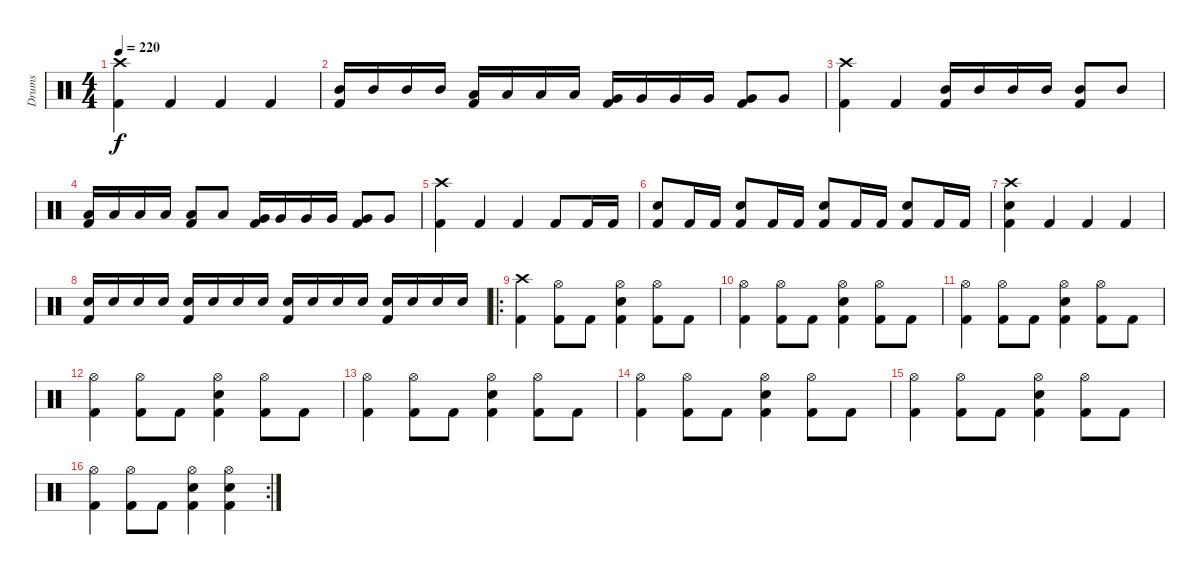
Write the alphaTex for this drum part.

\track ("Drums" "Drums") {instrument percussion}
\staff {score}
\articulation defaults
\ts (4 4)
\tempo 220
\tempo 200
\tempo 220
\clef neutral
\ks c
("Crash high (hit)" "Kick (hit) 2").4{dy f} "Kick (hit) 2".4 "Kick (hit) 2".4 "Kick (hit) 2".4 |
("Mid Tom (hit)" "Kick (hit) 2").16 "Mid Tom (hit)".16 "Mid Tom (hit)".16 "Mid Tom (hit)".16 ("Low Tom (hit)" "Kick (hit) 2").16 "Low Tom (hit)".16 "Low Tom (hit)".16 "Low Tom (hit)".16 ("Very Low Tom (hit)" "Kick (hit) 2").16 "Very Low Tom (hit)".16 "Very Low Tom (hit)".16 "Very Low Tom (hit)".16 ("Very Low Tom (hit)" "Kick (hit) 2").8 "Very Low Tom (hit)".8 |
("Crash high (hit)" "Kick (hit) 2").4 "Kick (hit) 2".4 ("Mid Tom (hit)" "Kick (hit) 2").16 "Mid Tom (hit)".16 "Mid Tom (hit)".16 "Mid Tom (hit)".16 ("Mid Tom (hit)" "Kick (hit) 2").8 "Mid Tom (hit)".8 |
("Low Tom (hit)" "Kick (hit) 2").16 "Low Tom (hit)".16 "Low Tom (hit)".16 "Low Tom (hit)".16 ("Low Tom (hit)" "Kick (hit) 2").8 "Low Tom (hit)".8 ("Very Low Tom (hit)" "Kick (hit) 2").16 "Very Low Tom (hit)".16 "Very Low Tom (hit)".16 "Very Low Tom (hit)".16 ("Very Low Tom (hit)" "Kick (hit) 2").8 "Very Low Tom (hit)".8 |
("Crash high (hit)" "Kick (hit) 2").4 "Kick (hit) 2".4 "Kick (hit) 2".4 "Kick (hit) 2".8 "Kick (hit) 2".16 "Kick (hit) 2".16 |
("Snare (hit) 2" "Kick (hit) 2").8 "Kick (hit) 2".16 "Kick (hit) 2".16 ("Snare (hit) 2" "Kick (hit) 2").8 "Kick (hit) 2".16 "Kick (hit) 2".16 ("Snare (hit) 2" "Kick (hit) 2").8 "Kick (hit) 2".16 "Kick (hit) 2".16 ("Snare (hit) 2" "Kick (hit) 2").8 "Kick (hit) 2".16 "Kick (hit) 2".16 |
("Crash high (hit)" "Snare (hit) 2" "Kick (hit) 2").4 "Kick (hit) 2".4 "Kick (hit) 2".4 "Kick (hit) 2".4 |
("Snare (hit) 2" "Kick (hit) 2").16 "Snare (hit) 2".16 "Snare (hit) 2".16 "Snare (hit) 2".16 ("Snare (hit) 2" "Kick (hit) 2").16 "Snare (hit) 2".16 "Snare (hit) 2".16 "Snare (hit) 2".16 ("Snare (hit) 2" "Kick (hit) 2").16 "Snare (hit) 2".16 "Snare (hit) 2".16 "Snare (hit) 2".16 ("Snare (hit) 2" "Kick (hit) 2").16 "Snare (hit) 2".16 "Snare (hit) 2".16 "Snare (hit) 2".16 |
\ro
("Crash high (hit)" "Kick (hit) 2").4 ("Hi-Hat (open)" "Kick (hit) 2").8 "Kick (hit) 2".8 ("Hi-Hat (open)" "Snare (hit) 2" "Kick (hit) 2").4 ("Hi-Hat (open)" "Kick (hit) 2").8 "Kick (hit) 2".8 |
("Hi-Hat (open)" "Kick (hit) 2").4 ("Hi-Hat (open)" "Kick (hit) 2").8 "Kick (hit) 2".8 ("Hi-Hat (open)" "Snare (hit) 2" "Kick (hit) 2").4 ("Hi-Hat (open)" "Kick (hit) 2").8 "Kick (hit) 2".8 |
("Hi-Hat (open)" "Kick (hit) 2").4 ("Hi-Hat (open)" "Kick (hit) 2").8 "Kick (hit) 2".8 ("Hi-Hat (open)" "Snare (hit) 2" "Kick (hit) 2").4 ("Hi-Hat (open)" "Kick (hit) 2").8 "Kick (hit) 2".8 |
("Hi-Hat (open)" "Kick (hit) 2").4 ("Hi-Hat (open)" "Kick (hit) 2").8 "Kick (hit) 2".8 ("Hi-Hat (open)" "Snare (hit) 2" "Kick (hit) 2").4 ("Hi-Hat (open)" "Kick (hit) 2").8 "Kick (hit) 2".8 |
("Hi-Hat (open)" "Kick (hit) 2").4 ("Hi-Hat (open)" "Kick (hit) 2").8 "Kick (hit) 2".8 ("Hi-Hat (open)" "Snare (hit) 2" "Kick (hit) 2").4 ("Hi-Hat (open)" "Kick (hit) 2").8 "Kick (hit) 2".8 |
("Hi-Hat (open)" "Kick (hit) 2").4 ("Hi-Hat (open)" "Kick (hit) 2").8 "Kick (hit) 2".8 ("Hi-Hat (open)" "Snare (hit) 2" "Kick (hit) 2").4 ("Hi-Hat (open)" "Kick (hit) 2").8 "Kick (hit) 2".8 |
("Hi-Hat (open)" "Kick (hit) 2").4 ("Hi-Hat (open)" "Kick (hit) 2").8 "Kick (hit) 2".8 ("Hi-Hat (open)" "Snare (hit) 2" "Kick (hit) 2").4 ("Hi-Hat (open)" "Kick (hit) 2").8 "Kick (hit) 2".8 |
\rc 2
("Hi-Hat (open)" "Kick (hit) 2").4 ("Hi-Hat (open)" "Kick (hit) 2").8 "Kick (hit) 2".8 ("Hi-Hat (open)" "Snare (hit) 2" "Kick (hit) 2").4 ("Hi-Hat (open)" "Snare (hit) 2" "Kick (hit) 2").4
